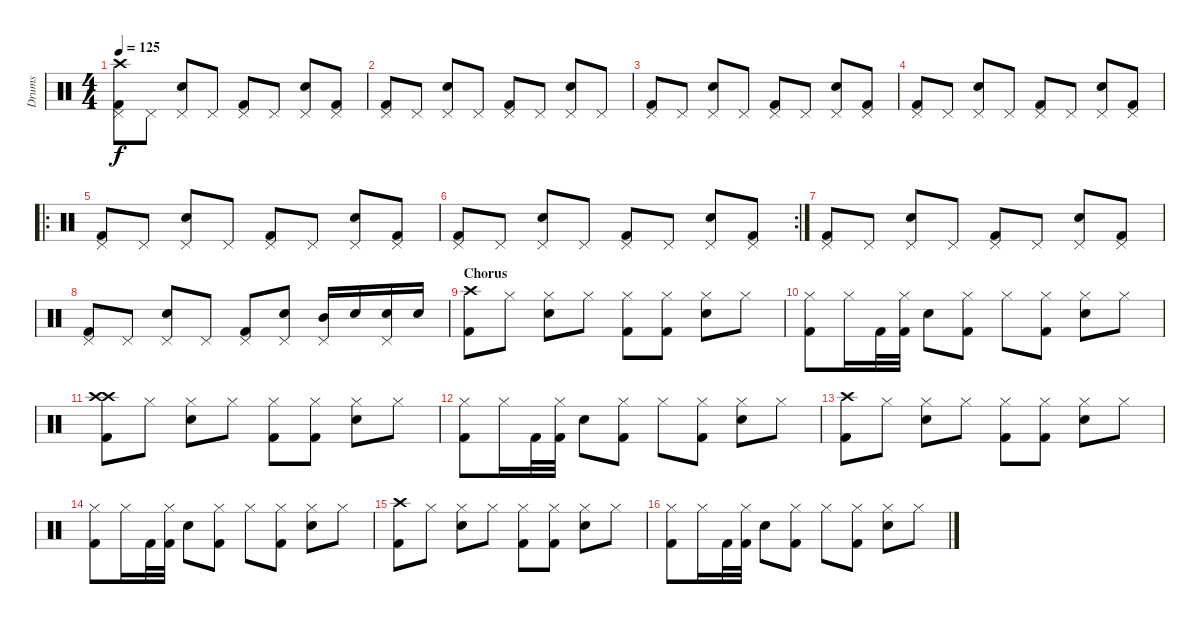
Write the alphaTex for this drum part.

\track ("Drums" "Drums") {instrument percussion}
\staff {score}
\articulation defaults
\ts (4 4)
\tempo 125
\clef neutral
\ks c
("Crash high (hit)" "Kick (hit) 2" "Pedal Hi-Hat (hit)").8{dy f} "Pedal Hi-Hat (hit)".8 ("Electric Snare (hit)" "Pedal Hi-Hat (hit)").8 "Pedal Hi-Hat (hit)".8 ("Kick (hit) 2" "Pedal Hi-Hat (hit)").8 "Pedal Hi-Hat (hit)".8 ("Electric Snare (hit)" "Pedal Hi-Hat (hit)").8 ("Kick (hit) 2" "Pedal Hi-Hat (hit)").8 |
("Kick (hit) 2" "Pedal Hi-Hat (hit)").8 "Pedal Hi-Hat (hit)".8 ("Electric Snare (hit)" "Pedal Hi-Hat (hit)").8 "Pedal Hi-Hat (hit)".8 ("Kick (hit) 2" "Pedal Hi-Hat (hit)").8 "Pedal Hi-Hat (hit)".8 ("Electric Snare (hit)" "Pedal Hi-Hat (hit)").8 "Pedal Hi-Hat (hit)".8 |
("Kick (hit) 2" "Pedal Hi-Hat (hit)").8 "Pedal Hi-Hat (hit)".8 ("Electric Snare (hit)" "Pedal Hi-Hat (hit)").8 "Pedal Hi-Hat (hit)".8 ("Kick (hit) 2" "Pedal Hi-Hat (hit)").8 "Pedal Hi-Hat (hit)".8 ("Electric Snare (hit)" "Pedal Hi-Hat (hit)").8 ("Kick (hit) 2" "Pedal Hi-Hat (hit)").8 |
("Kick (hit) 2" "Pedal Hi-Hat (hit)").8 "Pedal Hi-Hat (hit)".8 ("Electric Snare (hit)" "Pedal Hi-Hat (hit)").8 "Pedal Hi-Hat (hit)".8 ("Kick (hit) 2" "Pedal Hi-Hat (hit)").8 "Pedal Hi-Hat (hit)".8 ("Electric Snare (hit)" "Pedal Hi-Hat (hit)").8 ("Kick (hit) 2" "Pedal Hi-Hat (hit)").8 |
\ro
("Kick (hit) 2" "Pedal Hi-Hat (hit)").8 "Pedal Hi-Hat (hit)".8 ("Electric Snare (hit)" "Pedal Hi-Hat (hit)").8 "Pedal Hi-Hat (hit)".8 ("Kick (hit) 2" "Pedal Hi-Hat (hit)").8 "Pedal Hi-Hat (hit)".8 ("Electric Snare (hit)" "Pedal Hi-Hat (hit)").8 ("Kick (hit) 2" "Pedal Hi-Hat (hit)").8 |
\rc 2
("Kick (hit) 2" "Pedal Hi-Hat (hit)").8 "Pedal Hi-Hat (hit)".8 ("Electric Snare (hit)" "Pedal Hi-Hat (hit)").8 "Pedal Hi-Hat (hit)".8 ("Kick (hit) 2" "Pedal Hi-Hat (hit)").8 "Pedal Hi-Hat (hit)".8 ("Electric Snare (hit)" "Pedal Hi-Hat (hit)").8 ("Kick (hit) 2" "Pedal Hi-Hat (hit)").8 |
("Kick (hit) 2" "Pedal Hi-Hat (hit)").8 "Pedal Hi-Hat (hit)".8 ("Electric Snare (hit)" "Pedal Hi-Hat (hit)").8 "Pedal Hi-Hat (hit)".8 ("Kick (hit) 2" "Pedal Hi-Hat (hit)").8 "Pedal Hi-Hat (hit)".8 ("Electric Snare (hit)" "Pedal Hi-Hat (hit)").8 ("Kick (hit) 2" "Pedal Hi-Hat (hit)").8 |
("Kick (hit) 2" "Pedal Hi-Hat (hit)").8 "Pedal Hi-Hat (hit)".8 ("Electric Snare (hit)" "Pedal Hi-Hat (hit)").8 "Pedal Hi-Hat (hit)".8 ("Kick (hit) 2" "Pedal Hi-Hat (hit)").8 ("Electric Snare (hit)" "Pedal Hi-Hat (hit)").8 ("Mid Tom (hit)" "Pedal Hi-Hat (hit)").16 "Electric Snare (hit)".16 ("Electric Snare (hit)" "Pedal Hi-Hat (hit)").16 "Electric Snare (hit)".16 |
\section ("" "Chorus")
("Crash high (hit)" "Kick (hit) 2").8 "Hi-Hat (closed)".8 ("Hi-Hat (closed)" "Electric Snare (hit)").8 "Hi-Hat (closed)".8 ("Hi-Hat (closed)" "Kick (hit) 2").8 ("Hi-Hat (closed)" "Kick (hit) 2").8 ("Hi-Hat (closed)" "Electric Snare (hit)").8 "Hi-Hat (closed)".8 |
("Hi-Hat (closed)" "Kick (hit) 2").8 "Hi-Hat (closed)".16 "Kick (hit) 2".32 ("Hi-Hat (closed)" "Kick (hit) 2").32 "Electric Snare (hit)".8 ("Hi-Hat (closed)" "Kick (hit) 2").8 "Hi-Hat (closed)".8 ("Hi-Hat (closed)" "Kick (hit) 2").8 ("Hi-Hat (closed)" "Electric Snare (hit)").8 "Hi-Hat (closed)".8 |
("Crash high (hit)" "Crash high (hit)" "Kick (hit) 2").8 "Hi-Hat (closed)".8 ("Hi-Hat (closed)" "Electric Snare (hit)").8 "Hi-Hat (closed)".8 ("Hi-Hat (closed)" "Kick (hit) 2").8 ("Hi-Hat (closed)" "Kick (hit) 2").8 ("Hi-Hat (closed)" "Electric Snare (hit)").8 "Hi-Hat (closed)".8 |
("Hi-Hat (closed)" "Kick (hit) 2").8 "Hi-Hat (closed)".16 "Kick (hit) 2".32 ("Hi-Hat (closed)" "Kick (hit) 2").32 "Electric Snare (hit)".8 ("Hi-Hat (closed)" "Kick (hit) 2").8 "Hi-Hat (closed)".8 ("Hi-Hat (closed)" "Kick (hit) 2").8 ("Hi-Hat (closed)" "Electric Snare (hit)").8 "Hi-Hat (closed)".8 |
("Crash high (hit)" "Kick (hit) 2").8 "Hi-Hat (closed)".8 ("Hi-Hat (closed)" "Electric Snare (hit)").8 "Hi-Hat (closed)".8 ("Hi-Hat (closed)" "Kick (hit) 2").8 ("Hi-Hat (closed)" "Kick (hit) 2").8 ("Hi-Hat (closed)" "Electric Snare (hit)").8 "Hi-Hat (closed)".8 |
("Hi-Hat (closed)" "Kick (hit) 2").8 "Hi-Hat (closed)".16 "Kick (hit) 2".32 ("Hi-Hat (closed)" "Kick (hit) 2").32 "Electric Snare (hit)".8 ("Hi-Hat (closed)" "Kick (hit) 2").8 "Hi-Hat (closed)".8 ("Hi-Hat (closed)" "Kick (hit) 2").8 ("Hi-Hat (closed)" "Electric Snare (hit)").8 "Hi-Hat (closed)".8 |
("Crash high (hit)" "Kick (hit) 2").8 "Hi-Hat (closed)".8 ("Hi-Hat (closed)" "Electric Snare (hit)").8 "Hi-Hat (closed)".8 ("Hi-Hat (closed)" "Kick (hit) 2").8 ("Hi-Hat (closed)" "Kick (hit) 2").8 ("Hi-Hat (closed)" "Electric Snare (hit)").8 "Hi-Hat (closed)".8 |
("Hi-Hat (closed)" "Kick (hit) 2").8 "Hi-Hat (closed)".16 "Kick (hit) 2".32 ("Hi-Hat (closed)" "Kick (hit) 2").32 "Electric Snare (hit)".8 ("Hi-Hat (closed)" "Kick (hit) 2").8 "Hi-Hat (closed)".8 ("Hi-Hat (closed)" "Kick (hit) 2").8 ("Hi-Hat (closed)" "Electric Snare (hit)").8 "Hi-Hat (closed)".8
